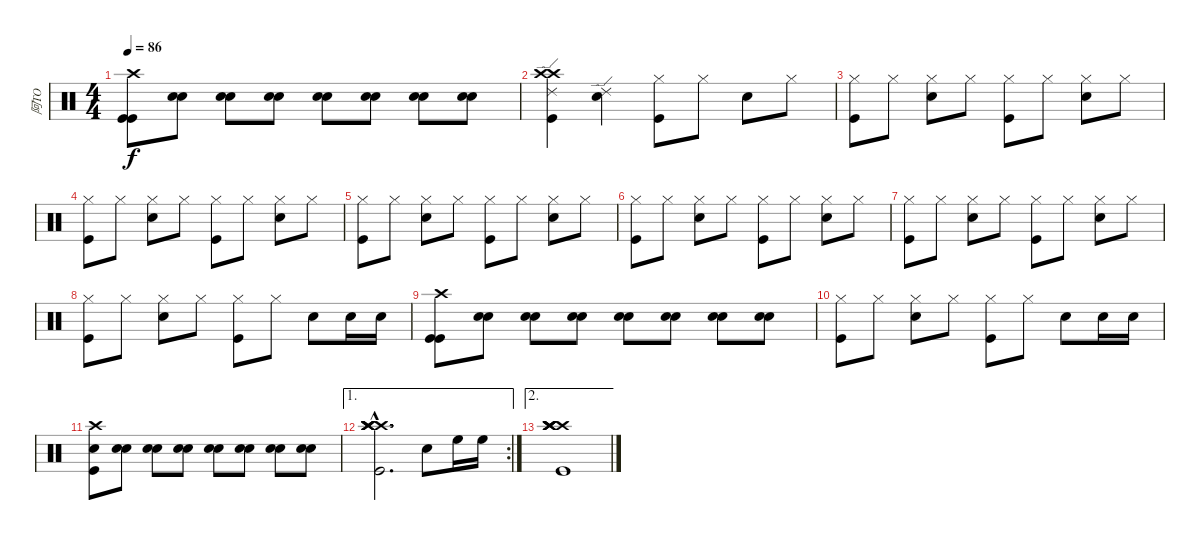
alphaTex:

\track ("阿TO" "阿TO") {instrument percussion}
\staff {score}
\articulation defaults
\ts (4 4)
\tempo 86
\clef neutral
\ks c
("Crash high (hit)" "Kick (hit)" "Kick (hit)").8{dy f} ("Snare (hit) 2" "Snare (hit) 2").8 ("Snare (hit) 2" "Snare (hit) 2").8 ("Snare (hit) 2" "Snare (hit) 2").8 ("Snare (hit) 2" "Snare (hit) 2").8 ("Snare (hit) 2" "Snare (hit) 2").8 ("Snare (hit) 2" "Snare (hit) 2").8 ("Snare (hit) 2" "Snare (hit) 2").8 |
("Crash high (hit)" "Kick (hit)" "Crash high (hit)" "Ride (edge) 2").4 ("Snare (hit) 2" "Ride (edge) 2").4 ("Kick (hit)" "Hi-Hat (closed)").8 "Hi-Hat (closed)".8 "Snare (hit) 2".8 "Hi-Hat (closed)".8 |
("Kick (hit)" "Hi-Hat (closed)").8 "Hi-Hat (closed)".8 ("Snare (hit) 2" "Hi-Hat (closed)").8 "Hi-Hat (closed)".8 ("Kick (hit)" "Hi-Hat (closed)").8 "Hi-Hat (closed)".8 ("Snare (hit) 2" "Hi-Hat (closed)").8 "Hi-Hat (closed)".8 |
("Kick (hit)" "Hi-Hat (closed)").8 "Hi-Hat (closed)".8 ("Snare (hit) 2" "Hi-Hat (closed)").8 "Hi-Hat (closed)".8 ("Kick (hit)" "Hi-Hat (closed)").8 "Hi-Hat (closed)".8 ("Snare (hit) 2" "Hi-Hat (closed)").8 "Hi-Hat (closed)".8 |
("Kick (hit)" "Hi-Hat (closed)").8 "Hi-Hat (closed)".8 ("Snare (hit) 2" "Hi-Hat (closed)").8 "Hi-Hat (closed)".8 ("Kick (hit)" "Hi-Hat (closed)").8 "Hi-Hat (closed)".8 ("Snare (hit) 2" "Hi-Hat (closed)").8 "Hi-Hat (closed)".8 |
("Kick (hit)" "Hi-Hat (closed)").8 "Hi-Hat (closed)".8 ("Snare (hit) 2" "Hi-Hat (closed)").8 "Hi-Hat (closed)".8 ("Kick (hit)" "Hi-Hat (closed)").8 "Hi-Hat (closed)".8 ("Snare (hit) 2" "Hi-Hat (closed)").8 "Hi-Hat (closed)".8 |
("Kick (hit)" "Hi-Hat (closed)").8 "Hi-Hat (closed)".8 ("Snare (hit) 2" "Hi-Hat (closed)").8 "Hi-Hat (closed)".8 ("Kick (hit)" "Hi-Hat (closed)").8 "Hi-Hat (closed)".8 ("Snare (hit) 2" "Hi-Hat (closed)").8 "Hi-Hat (closed)".8 |
("Kick (hit)" "Hi-Hat (closed)").8 "Hi-Hat (closed)".8 ("Snare (hit) 2" "Hi-Hat (closed)").8 "Hi-Hat (closed)".8 ("Kick (hit)" "Hi-Hat (closed)").8 "Hi-Hat (closed)".8 "Snare (hit) 2".8 "Snare (hit) 2".16 "Snare (hit) 2".16 |
("Crash high (hit)" "Kick (hit)" "Kick (hit)").8 ("Snare (hit) 2" "Snare (hit) 2").8 ("Snare (hit) 2" "Snare (hit) 2").8 ("Snare (hit) 2" "Snare (hit) 2").8 ("Snare (hit) 2" "Snare (hit) 2").8 ("Snare (hit) 2" "Snare (hit) 2").8 ("Snare (hit) 2" "Snare (hit) 2").8 ("Snare (hit) 2" "Snare (hit) 2").8 |
("Kick (hit)" "Hi-Hat (closed)").8 "Hi-Hat (closed)".8 ("Snare (hit) 2" "Hi-Hat (closed)").8 "Hi-Hat (closed)".8 ("Kick (hit)" "Hi-Hat (closed)").8 "Hi-Hat (closed)".8 "Snare (hit) 2".8 "Snare (hit) 2".16 "Snare (hit) 2".16 |
("Crash high (hit)" "Kick (hit)" "Snare (hit) 2").8 ("Snare (hit) 2" "Snare (hit) 2").8 ("Snare (hit) 2" "Snare (hit) 2").8 ("Snare (hit) 2" "Snare (hit) 2").8 ("Snare (hit) 2" "Snare (hit) 2").8 ("Snare (hit) 2" "Snare (hit) 2").8 ("Snare (hit) 2" "Snare (hit) 2").8 ("Snare (hit) 2" "Snare (hit) 2").8 |
\ae 1
\rc 2
("Crash high (hit)"{hac} "Crash high (hit)"{hac} "Kick (hit)"{hac} "Crash high (hit)"{hac} "Crash high (hit)"{hac} "Crash high (hit)"{hac}).2{d} "Snare (hit) 2".8 "High Floor Tom (hit)".16 "High Floor Tom (hit)".16 |
\ae 2
("Crash high (hit)" "Crash high (hit)" "Kick (hit)" "Crash high (hit)" "Crash high (hit)" "Crash high (hit)").1
